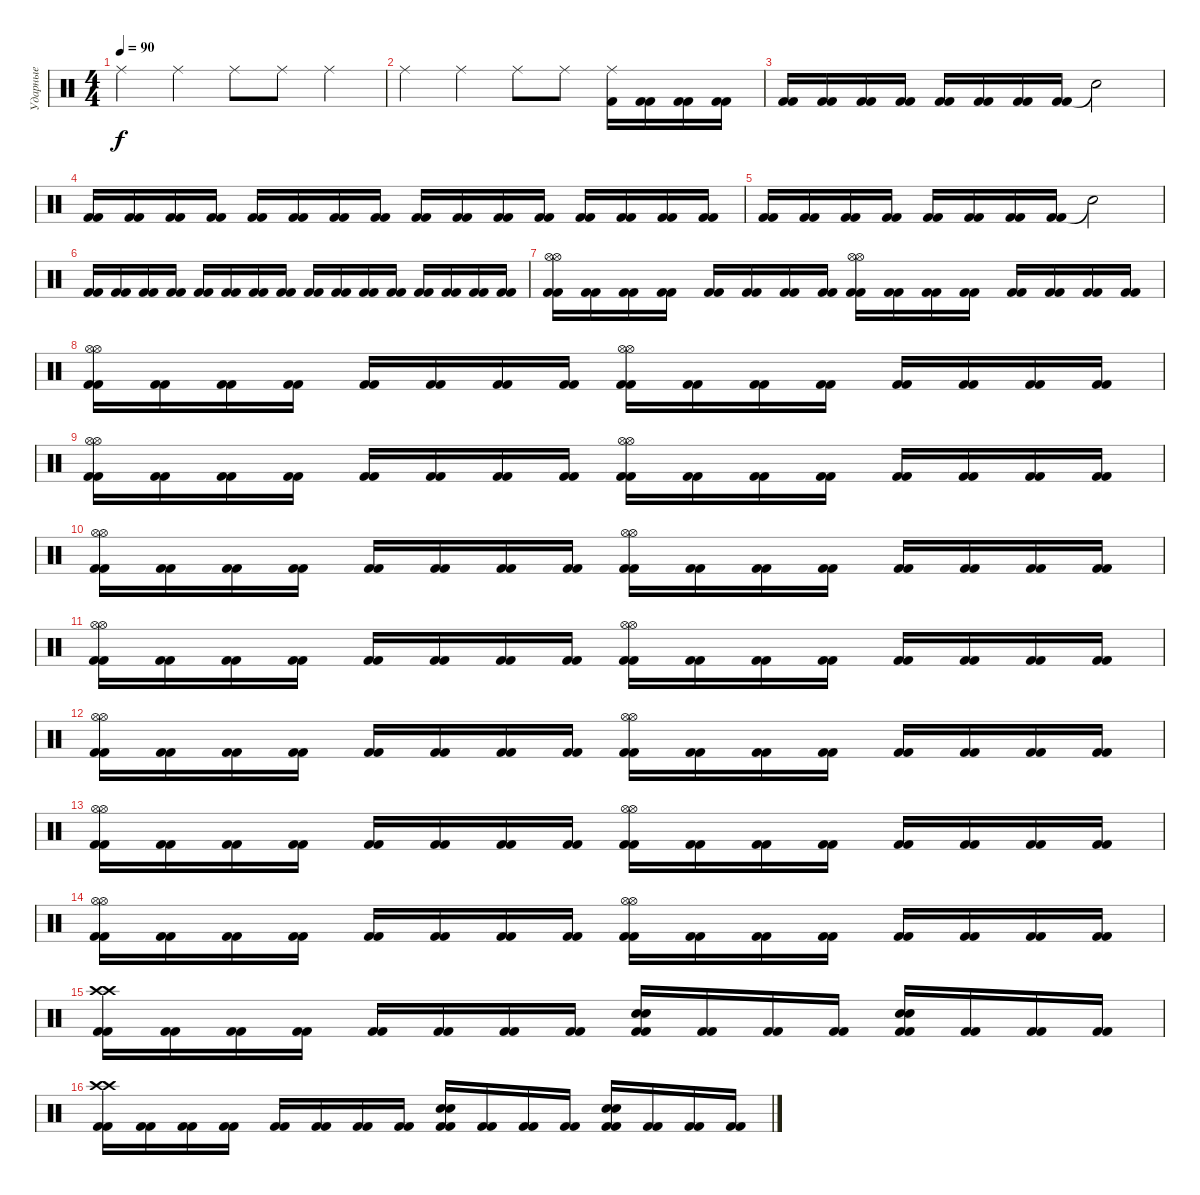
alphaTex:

\track ("Ударные" "Ударные") {instrument percussion}
\staff {score}
\articulation defaults
\ts (4 4)
\tempo 90
\clef neutral
\ks c "Ride (middle)".4{dy f} "Ride (middle)".4 "Ride (middle)".8 "Ride (middle)".8 "Ride (middle)".4
|
"Ride (middle)".4 "Ride (middle)".4 "Ride (middle)".8 "Ride (middle)".8 ("Kick (hit) 2" "Ride (middle)").16 ("Kick (hit) 2" "Kick (hit) 2").16 ("Kick (hit) 2" "Kick (hit) 2").16 ("Kick (hit) 2" "Kick (hit) 2").16 |
("Kick (hit) 2" "Kick (hit) 2").16 ("Kick (hit) 2" "Kick (hit) 2").16 ("Kick (hit) 2" "Kick (hit) 2").16 ("Kick (hit) 2" "Kick (hit) 2").16 ("Kick (hit) 2" "Kick (hit) 2").16 ("Kick (hit) 2" "Kick (hit) 2").16 ("Kick (hit) 2" "Kick (hit) 2").16 ("Kick (hit) 2" "Kick (hit) 2").16 "Snare (hit)"{t}.2 |
("Kick (hit) 2" "Kick (hit) 2").16 ("Kick (hit) 2" "Kick (hit) 2").16 ("Kick (hit) 2" "Kick (hit) 2").16 ("Kick (hit) 2" "Kick (hit) 2").16 ("Kick (hit) 2" "Kick (hit) 2").16 ("Kick (hit) 2" "Kick (hit) 2").16 ("Kick (hit) 2" "Kick (hit) 2").16 ("Kick (hit) 2" "Kick (hit) 2").16 ("Kick (hit) 2" "Kick (hit) 2").16 ("Kick (hit) 2" "Kick (hit) 2").16 ("Kick (hit) 2" "Kick (hit) 2").16 ("Kick (hit) 2" "Kick (hit) 2").16 ("Kick (hit) 2" "Kick (hit) 2").16 ("Kick (hit) 2" "Kick (hit) 2").16 ("Kick (hit) 2" "Kick (hit) 2").16 ("Kick (hit) 2" "Kick (hit) 2").16 |
("Kick (hit) 2" "Kick (hit) 2").16 ("Kick (hit) 2" "Kick (hit) 2").16 ("Kick (hit) 2" "Kick (hit) 2").16 ("Kick (hit) 2" "Kick (hit) 2").16 ("Kick (hit) 2" "Kick (hit) 2").16 ("Kick (hit) 2" "Kick (hit) 2").16 ("Kick (hit) 2" "Kick (hit) 2").16 ("Kick (hit) 2" "Kick (hit) 2").16 "Snare (hit)"{t}.2 |
("Kick (hit) 2" "Kick (hit) 2").16 ("Kick (hit) 2" "Kick (hit) 2").16 ("Kick (hit) 2" "Kick (hit) 2").16 ("Kick (hit) 2" "Kick (hit) 2").16 ("Kick (hit) 2" "Kick (hit) 2").16 ("Kick (hit) 2" "Kick (hit) 2").16 ("Kick (hit) 2" "Kick (hit) 2").16 ("Kick (hit) 2" "Kick (hit) 2").16 ("Kick (hit) 2" "Kick (hit) 2").16 ("Kick (hit) 2" "Kick (hit) 2").16 ("Kick (hit) 2" "Kick (hit) 2").16 ("Kick (hit) 2" "Kick (hit) 2").16 ("Kick (hit) 2" "Kick (hit) 2").16 ("Kick (hit) 2" "Kick (hit) 2").16 ("Kick (hit) 2" "Kick (hit) 2").16 ("Kick (hit) 2" "Kick (hit) 2").16 |
("Kick (hit) 2" "Kick (hit) 2" "Hi-Hat (open)" "Hi-Hat (open)").16 ("Kick (hit) 2" "Kick (hit) 2").16 ("Kick (hit) 2" "Kick (hit) 2").16 ("Kick (hit) 2" "Kick (hit) 2").16 ("Kick (hit) 2" "Kick (hit) 2").16 ("Kick (hit) 2" "Kick (hit) 2").16 ("Kick (hit) 2" "Kick (hit) 2").16 ("Kick (hit) 2" "Kick (hit) 2").16 ("Kick (hit) 2" "Kick (hit) 2" "Hi-Hat (open)" "Hi-Hat (open)").16 ("Kick (hit) 2" "Kick (hit) 2").16 ("Kick (hit) 2" "Kick (hit) 2").16 ("Kick (hit) 2" "Kick (hit) 2").16 ("Kick (hit) 2" "Kick (hit) 2").16 ("Kick (hit) 2" "Kick (hit) 2").16 ("Kick (hit) 2" "Kick (hit) 2").16 ("Kick (hit) 2" "Kick (hit) 2").16 |
("Kick (hit) 2" "Kick (hit) 2" "Hi-Hat (open)" "Hi-Hat (open)").16 ("Kick (hit) 2" "Kick (hit) 2").16 ("Kick (hit) 2" "Kick (hit) 2").16 ("Kick (hit) 2" "Kick (hit) 2").16 ("Kick (hit) 2" "Kick (hit) 2").16 ("Kick (hit) 2" "Kick (hit) 2").16 ("Kick (hit) 2" "Kick (hit) 2").16 ("Kick (hit) 2" "Kick (hit) 2").16 ("Kick (hit) 2" "Kick (hit) 2" "Hi-Hat (open)" "Hi-Hat (open)").16 ("Kick (hit) 2" "Kick (hit) 2").16 ("Kick (hit) 2" "Kick (hit) 2").16 ("Kick (hit) 2" "Kick (hit) 2").16 ("Kick (hit) 2" "Kick (hit) 2").16 ("Kick (hit) 2" "Kick (hit) 2").16 ("Kick (hit) 2" "Kick (hit) 2").16 ("Kick (hit) 2" "Kick (hit) 2").16 |
("Kick (hit) 2" "Kick (hit) 2" "Hi-Hat (open)" "Hi-Hat (open)").16 ("Kick (hit) 2" "Kick (hit) 2").16 ("Kick (hit) 2" "Kick (hit) 2").16 ("Kick (hit) 2" "Kick (hit) 2").16 ("Kick (hit) 2" "Kick (hit) 2").16 ("Kick (hit) 2" "Kick (hit) 2").16 ("Kick (hit) 2" "Kick (hit) 2").16 ("Kick (hit) 2" "Kick (hit) 2").16 ("Kick (hit) 2" "Kick (hit) 2" "Hi-Hat (open)" "Hi-Hat (open)").16 ("Kick (hit) 2" "Kick (hit) 2").16 ("Kick (hit) 2" "Kick (hit) 2").16 ("Kick (hit) 2" "Kick (hit) 2").16 ("Kick (hit) 2" "Kick (hit) 2").16 ("Kick (hit) 2" "Kick (hit) 2").16 ("Kick (hit) 2" "Kick (hit) 2").16 ("Kick (hit) 2" "Kick (hit) 2").16 |
("Kick (hit) 2" "Kick (hit) 2" "Hi-Hat (open)" "Hi-Hat (open)").16 ("Kick (hit) 2" "Kick (hit) 2").16 ("Kick (hit) 2" "Kick (hit) 2").16 ("Kick (hit) 2" "Kick (hit) 2").16 ("Kick (hit) 2" "Kick (hit) 2").16 ("Kick (hit) 2" "Kick (hit) 2").16 ("Kick (hit) 2" "Kick (hit) 2").16 ("Kick (hit) 2" "Kick (hit) 2").16 ("Kick (hit) 2" "Kick (hit) 2" "Hi-Hat (open)" "Hi-Hat (open)").16 ("Kick (hit) 2" "Kick (hit) 2").16 ("Kick (hit) 2" "Kick (hit) 2").16 ("Kick (hit) 2" "Kick (hit) 2").16 ("Kick (hit) 2" "Kick (hit) 2").16 ("Kick (hit) 2" "Kick (hit) 2").16 ("Kick (hit) 2" "Kick (hit) 2").16 ("Kick (hit) 2" "Kick (hit) 2").16 |
("Kick (hit) 2" "Kick (hit) 2" "Hi-Hat (open)" "Hi-Hat (open)").16 ("Kick (hit) 2" "Kick (hit) 2").16 ("Kick (hit) 2" "Kick (hit) 2").16 ("Kick (hit) 2" "Kick (hit) 2").16 ("Kick (hit) 2" "Kick (hit) 2").16 ("Kick (hit) 2" "Kick (hit) 2").16 ("Kick (hit) 2" "Kick (hit) 2").16 ("Kick (hit) 2" "Kick (hit) 2").16 ("Kick (hit) 2" "Kick (hit) 2" "Hi-Hat (open)" "Hi-Hat (open)").16 ("Kick (hit) 2" "Kick (hit) 2").16 ("Kick (hit) 2" "Kick (hit) 2").16 ("Kick (hit) 2" "Kick (hit) 2").16 ("Kick (hit) 2" "Kick (hit) 2").16 ("Kick (hit) 2" "Kick (hit) 2").16 ("Kick (hit) 2" "Kick (hit) 2").16 ("Kick (hit) 2" "Kick (hit) 2").16 |
("Kick (hit) 2" "Kick (hit) 2" "Hi-Hat (open)" "Hi-Hat (open)").16 ("Kick (hit) 2" "Kick (hit) 2").16 ("Kick (hit) 2" "Kick (hit) 2").16 ("Kick (hit) 2" "Kick (hit) 2").16 ("Kick (hit) 2" "Kick (hit) 2").16 ("Kick (hit) 2" "Kick (hit) 2").16 ("Kick (hit) 2" "Kick (hit) 2").16 ("Kick (hit) 2" "Kick (hit) 2").16 ("Kick (hit) 2" "Kick (hit) 2" "Hi-Hat (open)" "Hi-Hat (open)").16 ("Kick (hit) 2" "Kick (hit) 2").16 ("Kick (hit) 2" "Kick (hit) 2").16 ("Kick (hit) 2" "Kick (hit) 2").16 ("Kick (hit) 2" "Kick (hit) 2").16 ("Kick (hit) 2" "Kick (hit) 2").16 ("Kick (hit) 2" "Kick (hit) 2").16 ("Kick (hit) 2" "Kick (hit) 2").16 |
("Kick (hit) 2" "Kick (hit) 2" "Hi-Hat (open)" "Hi-Hat (open)").16 ("Kick (hit) 2" "Kick (hit) 2").16 ("Kick (hit) 2" "Kick (hit) 2").16 ("Kick (hit) 2" "Kick (hit) 2").16 ("Kick (hit) 2" "Kick (hit) 2").16 ("Kick (hit) 2" "Kick (hit) 2").16 ("Kick (hit) 2" "Kick (hit) 2").16 ("Kick (hit) 2" "Kick (hit) 2").16 ("Kick (hit) 2" "Kick (hit) 2" "Hi-Hat (open)" "Hi-Hat (open)").16 ("Kick (hit) 2" "Kick (hit) 2").16 ("Kick (hit) 2" "Kick (hit) 2").16 ("Kick (hit) 2" "Kick (hit) 2").16 ("Kick (hit) 2" "Kick (hit) 2").16 ("Kick (hit) 2" "Kick (hit) 2").16 ("Kick (hit) 2" "Kick (hit) 2").16 ("Kick (hit) 2" "Kick (hit) 2").16 |
("Kick (hit) 2" "Kick (hit) 2" "Hi-Hat (open)" "Hi-Hat (open)").16 ("Kick (hit) 2" "Kick (hit) 2").16 ("Kick (hit) 2" "Kick (hit) 2").16 ("Kick (hit) 2" "Kick (hit) 2").16 ("Kick (hit) 2" "Kick (hit) 2").16 ("Kick (hit) 2" "Kick (hit) 2").16 ("Kick (hit) 2" "Kick (hit) 2").16 ("Kick (hit) 2" "Kick (hit) 2").16 ("Kick (hit) 2" "Kick (hit) 2" "Hi-Hat (open)" "Hi-Hat (open)").16 ("Kick (hit) 2" "Kick (hit) 2").16 ("Kick (hit) 2" "Kick (hit) 2").16 ("Kick (hit) 2" "Kick (hit) 2").16 ("Kick (hit) 2" "Kick (hit) 2").16 ("Kick (hit) 2" "Kick (hit) 2").16 ("Kick (hit) 2" "Kick (hit) 2").16 ("Kick (hit) 2" "Kick (hit) 2").16 |
("Kick (hit) 2" "Kick (hit) 2" "Crash high (hit)" "Crash high (hit)").16 ("Kick (hit) 2" "Kick (hit) 2").16 ("Kick (hit) 2" "Kick (hit) 2").16 ("Kick (hit) 2" "Kick (hit) 2").16 ("Kick (hit) 2" "Kick (hit) 2").16 ("Kick (hit) 2" "Kick (hit) 2").16 ("Kick (hit) 2" "Kick (hit) 2").16 ("Kick (hit) 2" "Kick (hit) 2").16 ("Kick (hit) 2" "Kick (hit) 2" "Electric Snare (hit)" "Electric Snare (hit)").16 ("Kick (hit) 2" "Kick (hit) 2").16 ("Kick (hit) 2" "Kick (hit) 2").16 ("Kick (hit) 2" "Kick (hit) 2").16 ("Kick (hit) 2" "Kick (hit) 2" "Electric Snare (hit)" "Electric Snare (hit)").16 ("Kick (hit) 2" "Kick (hit) 2").16 ("Kick (hit) 2" "Kick (hit) 2").16 ("Kick (hit) 2" "Kick (hit) 2").16 |
("Kick (hit) 2" "Kick (hit) 2" "Crash high (hit)" "Crash high (hit)").16 ("Kick (hit) 2" "Kick (hit) 2").16 ("Kick (hit) 2" "Kick (hit) 2").16 ("Kick (hit) 2" "Kick (hit) 2").16 ("Kick (hit) 2" "Kick (hit) 2").16 ("Kick (hit) 2" "Kick (hit) 2").16 ("Kick (hit) 2" "Kick (hit) 2").16 ("Kick (hit) 2" "Kick (hit) 2").16 ("Kick (hit) 2" "Kick (hit) 2" "Electric Snare (hit)" "Electric Snare (hit)").16 ("Kick (hit) 2" "Kick (hit) 2").16 ("Kick (hit) 2" "Kick (hit) 2").16 ("Kick (hit) 2" "Kick (hit) 2").16 ("Kick (hit) 2" "Kick (hit) 2" "Electric Snare (hit)" "Electric Snare (hit)").16 ("Kick (hit) 2" "Kick (hit) 2").16 ("Kick (hit) 2" "Kick (hit) 2").16 ("Kick (hit) 2" "Kick (hit) 2").16
